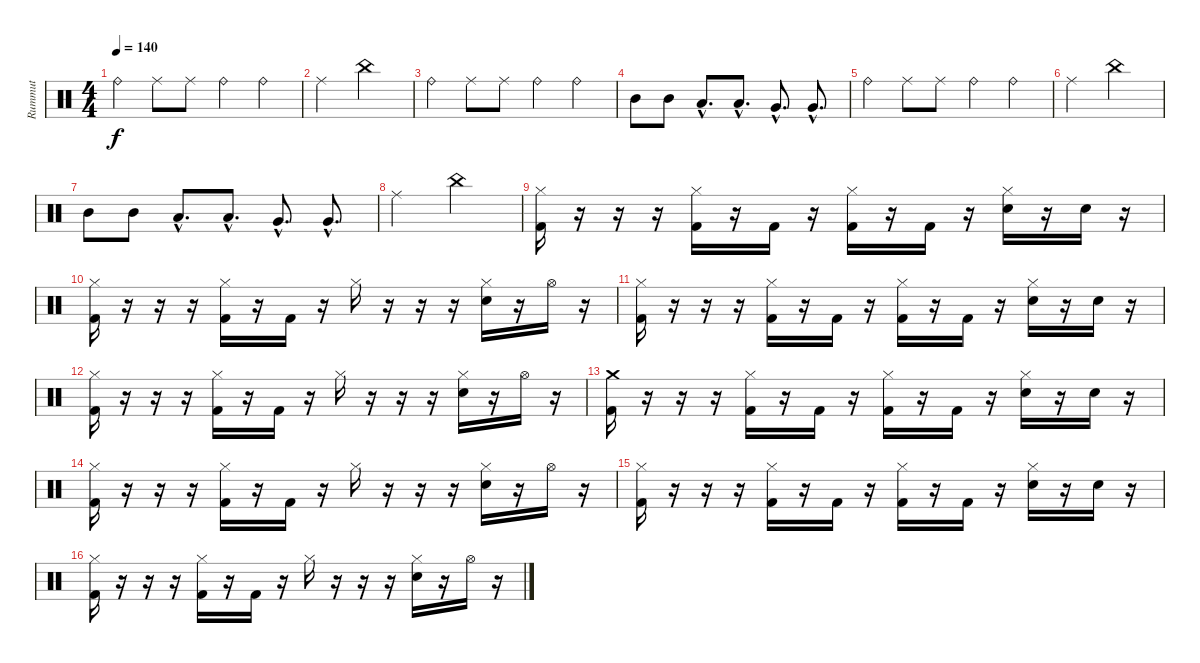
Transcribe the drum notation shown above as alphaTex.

\track ("Rummut" "Rummut") {instrument percussion}
\staff {score}
\articulation defaults
\ts (4 4)
\tempo 140
\clef neutral
\ks c "Ride (bell)".4{dy f} "Ride (middle)".8 "Ride (middle)".8 "Ride (bell)".4 "Ride (bell)".4
|
"Ride (middle)".2 "China (hit)".2 |
"Ride (bell)".4 "Ride (middle)".8 "Ride (middle)".8 "Ride (bell)".4 "Ride (bell)".4 |
"Mid Tom (hit)".8 "Mid Tom (hit)".8 "Low Tom (hit)"{hac}.8{d} "Low Tom (hit)"{hac}.8{d} "Very Low Tom (hit)"{hac}.8{d} "Very Low Tom (hit)"{hac}.8{d} |
"Ride (bell)".4 "Ride (middle)".8 "Ride (middle)".8 "Ride (bell)".4 "Ride (bell)".4 |
"Ride (middle)".2 "China (hit)".2 |
"Mid Tom (hit)".8 "Mid Tom (hit)".8 "Low Tom (hit)"{hac}.8{d} "Low Tom (hit)"{hac}.8{d} "Very Low Tom (hit)"{hac}.8{d} "Very Low Tom (hit)"{hac}.8{d} |
"Ride (middle)".2 "China (hit)".2 |
("Hi-Hat (closed)" "Kick (hit) 2").16 r.16 r.16 r.16 ("Hi-Hat (closed)" "Kick (hit) 2").16 r.16 "Kick (hit) 2".16 r.16 ("Hi-Hat (closed)" "Kick (hit) 2").16 r.16 "Kick (hit) 2".16 r.16 ("Hi-Hat (closed)" "Snare (hit) 2").16 r.16 "Snare (hit) 2".16 r.16 |
("Hi-Hat (closed)" "Kick (hit) 2").16 r.16 r.16 r.16 ("Hi-Hat (closed)" "Kick (hit) 2").16 r.16 "Kick (hit) 2".16 r.16 "Hi-Hat (closed)".16 r.16 r.16 r.16 ("Hi-Hat (closed)" "Snare (hit) 2").16 r.16 "Hi-Hat (open)".16 r.16 |
("Hi-Hat (closed)" "Kick (hit) 2").16 r.16 r.16 r.16 ("Hi-Hat (closed)" "Kick (hit) 2").16 r.16 "Kick (hit) 2".16 r.16 ("Hi-Hat (closed)" "Kick (hit) 2").16 r.16 "Kick (hit) 2".16 r.16 ("Hi-Hat (closed)" "Snare (hit) 2").16 r.16 "Snare (hit) 2".16 r.16 |
("Hi-Hat (closed)" "Kick (hit) 2").16 r.16 r.16 r.16 ("Hi-Hat (closed)" "Kick (hit) 2").16 r.16 "Kick (hit) 2".16 r.16 "Hi-Hat (closed)".16 r.16 r.16 r.16 ("Hi-Hat (closed)" "Snare (hit) 2").16 r.16 "Hi-Hat (open)".16 r.16 |
("Crash medium (hit)" "Kick (hit) 2").16 r.16 r.16 r.16 ("Hi-Hat (closed)" "Kick (hit) 2").16 r.16 "Kick (hit) 2".16 r.16 ("Hi-Hat (closed)" "Kick (hit) 2").16 r.16 "Kick (hit) 2".16 r.16 ("Hi-Hat (closed)" "Snare (hit) 2").16 r.16 "Snare (hit) 2".16 r.16 |
("Hi-Hat (closed)" "Kick (hit) 2").16 r.16 r.16 r.16 ("Hi-Hat (closed)" "Kick (hit) 2").16 r.16 "Kick (hit) 2".16 r.16 "Hi-Hat (closed)".16 r.16 r.16 r.16 ("Hi-Hat (closed)" "Snare (hit) 2").16 r.16 "Hi-Hat (open)".16 r.16 |
("Hi-Hat (closed)" "Kick (hit) 2").16 r.16 r.16 r.16 ("Hi-Hat (closed)" "Kick (hit) 2").16 r.16 "Kick (hit) 2".16 r.16 ("Hi-Hat (closed)" "Kick (hit) 2").16 r.16 "Kick (hit) 2".16 r.16 ("Hi-Hat (closed)" "Snare (hit) 2").16 r.16 "Snare (hit) 2".16 r.16 |
("Hi-Hat (closed)" "Kick (hit) 2").16 r.16 r.16 r.16 ("Hi-Hat (closed)" "Kick (hit) 2").16 r.16 "Kick (hit) 2".16 r.16 "Hi-Hat (closed)".16 r.16 r.16 r.16 ("Hi-Hat (closed)" "Snare (hit) 2").16 r.16 "Hi-Hat (open)".16 r.16
